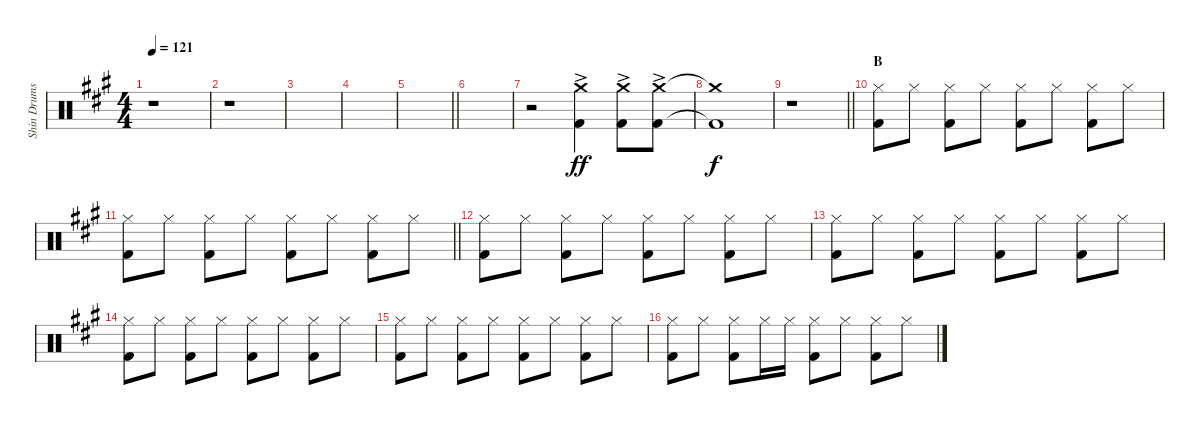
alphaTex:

\track ("Shin Drums" "Shin Drums") {instrument percussion}
\staff {score}
\articulation defaults
\ts (4 4)
\tempo 121
\clef neutral
\ks a
r.1{dy f} |
r.1 |
|
|
\barLineRight lightlight
|
\section ("" "")
|
r.2 ("Crash medium (hit)" "Kick (hit) 2"{ac}).4{dy ff} ("Crash medium (hit)" "Kick (hit) 2"{ac}).8 ("Crash medium (hit)" "Kick (hit) 2"{ac}).8 |
("Crash medium (hit)"{t} "Kick (hit) 2"{t}).1{dy f} |
\barLineRight lightlight
r.1 |
\section ("" "B")
("Hi-Hat (closed)" "Kick (hit) 2").8 "Hi-Hat (closed)".8 ("Hi-Hat (closed)" "Kick (hit) 2").8 "Hi-Hat (closed)".8 ("Hi-Hat (closed)" "Kick (hit) 2").8 "Hi-Hat (closed)".8 ("Hi-Hat (closed)" "Kick (hit) 2").8 "Hi-Hat (closed)".8 |
\barLineRight lightlight
("Hi-Hat (closed)" "Kick (hit) 2").8 "Hi-Hat (closed)".8 ("Hi-Hat (closed)" "Kick (hit) 2").8 "Hi-Hat (closed)".8 ("Hi-Hat (closed)" "Kick (hit) 2").8 "Hi-Hat (closed)".8 ("Hi-Hat (closed)" "Kick (hit) 2").8 "Hi-Hat (closed)".8 |
\section ("" "")
("Hi-Hat (closed)" "Kick (hit) 2").8 "Hi-Hat (closed)".8 ("Hi-Hat (closed)" "Kick (hit) 2").8 "Hi-Hat (closed)".8 ("Hi-Hat (closed)" "Kick (hit) 2").8 "Hi-Hat (closed)".8 ("Hi-Hat (closed)" "Kick (hit) 2").8 "Hi-Hat (closed)".8 |
("Hi-Hat (closed)" "Kick (hit) 2").8 "Hi-Hat (closed)".8 ("Hi-Hat (closed)" "Kick (hit) 2").8 "Hi-Hat (closed)".8 ("Hi-Hat (closed)" "Kick (hit) 2").8 "Hi-Hat (closed)".8 ("Hi-Hat (closed)" "Kick (hit) 2").8 "Hi-Hat (closed)".8 |
("Hi-Hat (closed)" "Kick (hit) 2").8 "Hi-Hat (closed)".8 ("Hi-Hat (closed)" "Kick (hit) 2").8 "Hi-Hat (closed)".8 ("Hi-Hat (closed)" "Kick (hit) 2").8 "Hi-Hat (closed)".8 ("Hi-Hat (closed)" "Kick (hit) 2").8 "Hi-Hat (closed)".8 |
("Hi-Hat (closed)" "Kick (hit) 2").8 "Hi-Hat (closed)".8 ("Hi-Hat (closed)" "Kick (hit) 2").8 "Hi-Hat (closed)".8 ("Hi-Hat (closed)" "Kick (hit) 2").8 "Hi-Hat (closed)".8 ("Hi-Hat (closed)" "Kick (hit) 2").8 "Hi-Hat (closed)".8 |
("Hi-Hat (closed)" "Kick (hit) 2").8 "Hi-Hat (closed)".8 ("Hi-Hat (closed)" "Kick (hit) 2").8 "Hi-Hat (closed)".16 "Hi-Hat (closed)".16 ("Hi-Hat (closed)" "Kick (hit) 2").8 "Hi-Hat (closed)".8 ("Hi-Hat (closed)" "Kick (hit) 2").8 "Hi-Hat (closed)".8
